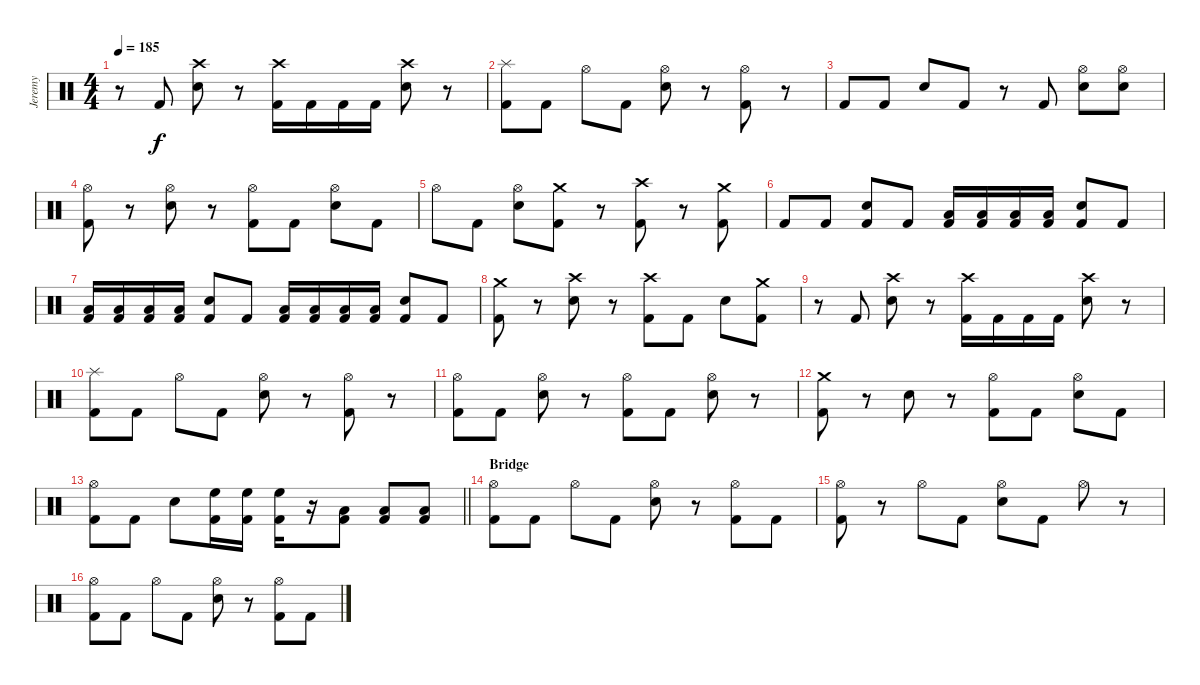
\track ("Jeremy" "Jeremy") {instrument percussion}
\staff {score}
\articulation defaults
\ts (4 4)
\tempo 185
\clef neutral
\ks c
r.8{dy f} "Kick (hit) 2".8 ("Crash high (hit)" "Snare (hit) 2").8 r.8 ("Crash high (hit)" "Kick (hit) 2").16 "Kick (hit) 2".16 "Kick (hit) 2".16 "Kick (hit) 2".16 ("Crash high (hit)" "Snare (hit) 2").8 r.8 |
("Splash (hit)" "Kick (hit) 2").8 "Kick (hit) 2".8 "Hi-Hat (open)".8 "Kick (hit) 2".8 ("Hi-Hat (open)" "Snare (hit) 2").8 r.8 ("Hi-Hat (open)" "Kick (hit) 2").8 r.8 |
"Kick (hit) 2".8 "Kick (hit) 2".8 "Snare (hit) 2".8 "Kick (hit) 2".8 r.8 "Kick (hit) 2".8 ("Hi-Hat (open)" "Snare (hit) 2").8 ("Hi-Hat (open)" "Snare (hit) 2").8 |
("Hi-Hat (open)" "Kick (hit) 2").8 r.8 ("Hi-Hat (open)" "Snare (hit) 2").8 r.8 ("Hi-Hat (open)" "Kick (hit) 2").8 "Kick (hit) 2".8 ("Hi-Hat (open)" "Snare (hit) 2").8 "Kick (hit) 2".8 |
"Hi-Hat (open)".8 "Kick (hit) 2".8 ("Hi-Hat (open)" "Snare (hit) 2").8 ("Crash medium (hit)" "Kick (hit) 2").8 r.8 ("Crash high (hit)" "Kick (hit) 2").8 r.8 ("Crash medium (hit)" "Kick (hit) 2").8 |
"Kick (hit) 2".8 "Kick (hit) 2".8 ("Snare (hit) 2" "Kick (hit) 2").8 "Kick (hit) 2".8 ("Low Tom (hit)" "Kick (hit) 2").16 ("Low Tom (hit)" "Kick (hit) 2").16 ("Low Tom (hit)" "Kick (hit) 2").16 ("Low Tom (hit)" "Kick (hit) 2").16 ("Snare (hit) 2" "Kick (hit) 2").8 "Kick (hit) 2".8 |
("Low Tom (hit)" "Kick (hit) 2").16 ("Low Tom (hit)" "Kick (hit) 2").16 ("Low Tom (hit)" "Kick (hit) 2").16 ("Low Tom (hit)" "Kick (hit) 2").16 ("Snare (hit) 2" "Kick (hit) 2").8 "Kick (hit) 2".8 ("Low Tom (hit)" "Kick (hit) 2").16 ("Low Tom (hit)" "Kick (hit) 2").16 ("Low Tom (hit)" "Kick (hit) 2").16 ("Low Tom (hit)" "Kick (hit) 2").16 ("Snare (hit) 2" "Kick (hit) 2").8 "Kick (hit) 2".8 |
("Crash medium (hit)" "Kick (hit) 2").8 r.8 ("Crash high (hit)" "Snare (hit) 2").8 r.8 ("Crash high (hit)" "Kick (hit) 2").8 "Kick (hit) 2".8 "Snare (hit) 2".8 ("Crash medium (hit)" "Kick (hit) 2").8 |
r.8 "Kick (hit) 2".8 ("Crash high (hit)" "Snare (hit) 2").8 r.8 ("Crash high (hit)" "Kick (hit) 2").16 "Kick (hit) 2".16 "Kick (hit) 2".16 "Kick (hit) 2".16 ("Crash high (hit)" "Snare (hit) 2").8 r.8 |
("Splash (hit)" "Kick (hit) 2").8 "Kick (hit) 2".8 "Hi-Hat (open)".8 "Kick (hit) 2".8 ("Hi-Hat (open)" "Snare (hit) 2").8 r.8 ("Hi-Hat (open)" "Kick (hit) 2").8 r.8 |
("Hi-Hat (open)" "Kick (hit) 2").8 "Kick (hit) 2".8 ("Hi-Hat (open)" "Snare (hit) 2").8 r.8 ("Hi-Hat (open)" "Kick (hit) 2").8 "Kick (hit) 2".8 ("Hi-Hat (open)" "Snare (hit) 2").8 r.8 |
("Crash medium (hit)" "Kick (hit) 2").8 r.8 "Snare (hit) 2".8 r.8 ("Hi-Hat (open)" "Kick (hit) 2").8 "Kick (hit) 2".8 ("Hi-Hat (open)" "Snare (hit) 2").8 "Kick (hit) 2".8 |
\barLineRight lightlight
("Hi-Hat (open)" "Kick (hit) 2").8 "Kick (hit) 2".8 "Snare (hit) 2".8 ("High Floor Tom (hit)" "Kick (hit) 2").16 ("High Floor Tom (hit)" "Kick (hit) 2").16 ("High Floor Tom (hit)" "Kick (hit) 2").16 r.16 ("Low Tom (hit)" "Kick (hit) 2").8 ("Low Tom (hit)" "Kick (hit) 2").8 ("Low Tom (hit)" "Kick (hit) 2").8 |
\section ("" "Bridge")
("Hi-Hat (open)" "Kick (hit) 2").8 "Kick (hit) 2".8 "Hi-Hat (open)".8 "Kick (hit) 2".8 ("Hi-Hat (open)" "Snare (hit) 2").8 r.8 ("Hi-Hat (open)" "Kick (hit) 2").8 "Kick (hit) 2".8 |
("Hi-Hat (open)" "Kick (hit) 2").8 r.8 "Hi-Hat (open)".8 "Kick (hit) 2".8 ("Hi-Hat (open)" "Snare (hit) 2").8 "Kick (hit) 2".8 "Hi-Hat (open)".8 r.8 |
("Hi-Hat (open)" "Kick (hit) 2").8 "Kick (hit) 2".8 "Hi-Hat (open)".8 "Kick (hit) 2".8 ("Hi-Hat (open)" "Snare (hit) 2").8 r.8 ("Hi-Hat (open)" "Kick (hit) 2").8 "Kick (hit) 2".8
